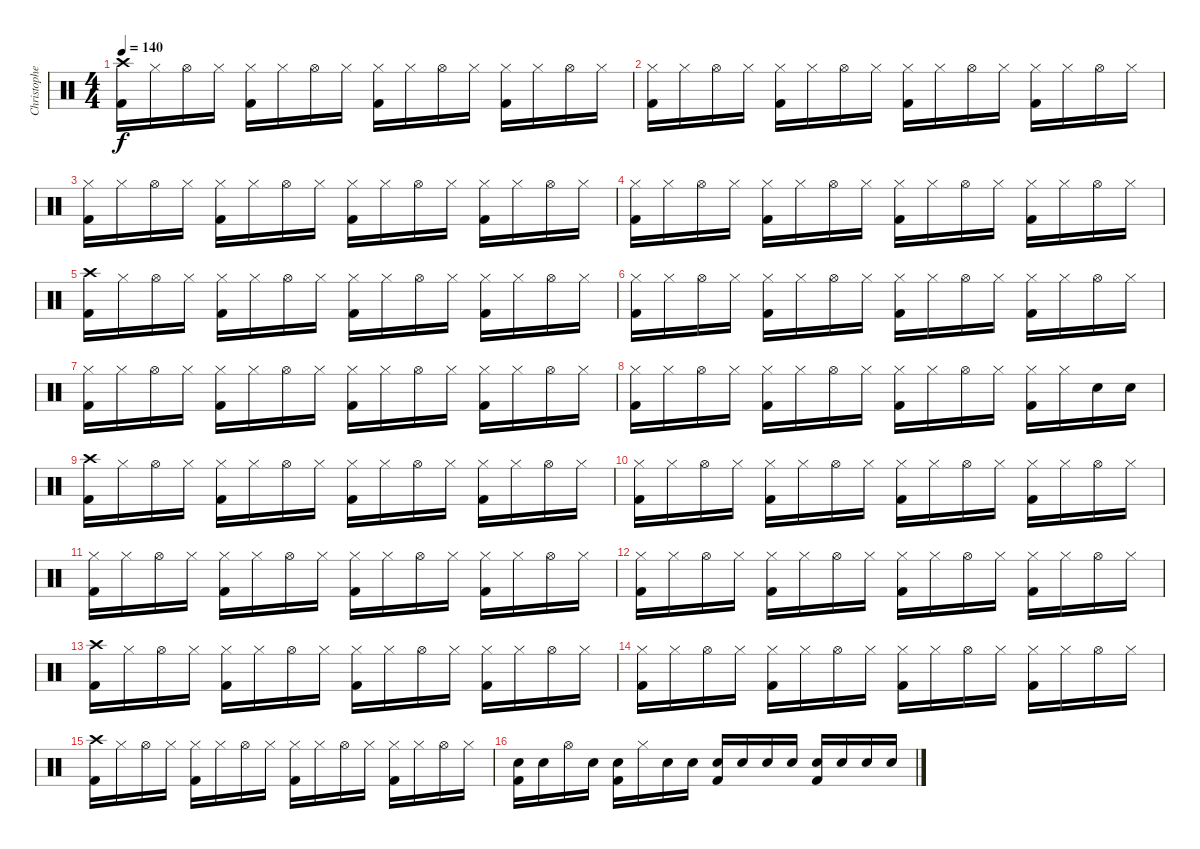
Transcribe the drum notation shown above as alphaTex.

\track ("Christopher Lawrence " "Christophe") {instrument percussion}
\staff {score}
\articulation defaults
\ts (4 4)
\tempo 140
\clef neutral
\ks c
("Crash high (hit)" "Kick (hit) 2").16{dy f} "Hi-Hat (closed)".16 "Hi-Hat (open)".16 "Hi-Hat (closed)".16 ("Hi-Hat (closed)" "Kick (hit) 2").16 "Hi-Hat (closed)".16 "Hi-Hat (open)".16 "Hi-Hat (closed)".16 ("Hi-Hat (closed)" "Kick (hit) 2").16 "Hi-Hat (closed)".16 "Hi-Hat (open)".16 "Hi-Hat (closed)".16 ("Hi-Hat (closed)" "Kick (hit) 2").16 "Hi-Hat (closed)".16 "Hi-Hat (open)".16 "Hi-Hat (closed)".16 |
("Hi-Hat (closed)" "Kick (hit) 2").16 "Hi-Hat (closed)".16 "Hi-Hat (open)".16 "Hi-Hat (closed)".16 ("Hi-Hat (closed)" "Kick (hit) 2").16 "Hi-Hat (closed)".16 "Hi-Hat (open)".16 "Hi-Hat (closed)".16 ("Hi-Hat (closed)" "Kick (hit) 2").16 "Hi-Hat (closed)".16 "Hi-Hat (open)".16 "Hi-Hat (closed)".16 ("Hi-Hat (closed)" "Kick (hit) 2").16 "Hi-Hat (closed)".16 "Hi-Hat (open)".16 "Hi-Hat (closed)".16 |
("Hi-Hat (closed)" "Kick (hit) 2").16 "Hi-Hat (closed)".16 "Hi-Hat (open)".16 "Hi-Hat (closed)".16 ("Hi-Hat (closed)" "Kick (hit) 2").16 "Hi-Hat (closed)".16 "Hi-Hat (open)".16 "Hi-Hat (closed)".16 ("Hi-Hat (closed)" "Kick (hit) 2").16 "Hi-Hat (closed)".16 "Hi-Hat (open)".16 "Hi-Hat (closed)".16 ("Hi-Hat (closed)" "Kick (hit) 2").16 "Hi-Hat (closed)".16 "Hi-Hat (open)".16 "Hi-Hat (closed)".16 |
("Hi-Hat (closed)" "Kick (hit) 2").16 "Hi-Hat (closed)".16 "Hi-Hat (open)".16 "Hi-Hat (closed)".16 ("Hi-Hat (closed)" "Kick (hit) 2").16 "Hi-Hat (closed)".16 "Hi-Hat (open)".16 "Hi-Hat (closed)".16 ("Hi-Hat (closed)" "Kick (hit) 2").16 "Hi-Hat (closed)".16 "Hi-Hat (open)".16 "Hi-Hat (closed)".16 ("Hi-Hat (closed)" "Kick (hit) 2").16 "Hi-Hat (closed)".16 "Hi-Hat (open)".16 "Hi-Hat (closed)".16 |
("Crash high (hit)" "Kick (hit) 2").16 "Hi-Hat (closed)".16 "Hi-Hat (open)".16 "Hi-Hat (closed)".16 ("Hi-Hat (closed)" "Kick (hit) 2").16 "Hi-Hat (closed)".16 "Hi-Hat (open)".16 "Hi-Hat (closed)".16 ("Hi-Hat (closed)" "Kick (hit) 2").16 "Hi-Hat (closed)".16 "Hi-Hat (open)".16 "Hi-Hat (closed)".16 ("Hi-Hat (closed)" "Kick (hit) 2").16 "Hi-Hat (closed)".16 "Hi-Hat (open)".16 "Hi-Hat (closed)".16 |
("Hi-Hat (closed)" "Kick (hit) 2").16 "Hi-Hat (closed)".16 "Hi-Hat (open)".16 "Hi-Hat (closed)".16 ("Hi-Hat (closed)" "Kick (hit) 2").16 "Hi-Hat (closed)".16 "Hi-Hat (open)".16 "Hi-Hat (closed)".16 ("Hi-Hat (closed)" "Kick (hit) 2").16 "Hi-Hat (closed)".16 "Hi-Hat (open)".16 "Hi-Hat (closed)".16 ("Hi-Hat (closed)" "Kick (hit) 2").16 "Hi-Hat (closed)".16 "Hi-Hat (open)".16 "Hi-Hat (closed)".16 |
("Hi-Hat (closed)" "Kick (hit) 2").16 "Hi-Hat (closed)".16 "Hi-Hat (open)".16 "Hi-Hat (closed)".16 ("Hi-Hat (closed)" "Kick (hit) 2").16 "Hi-Hat (closed)".16 "Hi-Hat (open)".16 "Hi-Hat (closed)".16 ("Hi-Hat (closed)" "Kick (hit) 2").16 "Hi-Hat (closed)".16 "Hi-Hat (open)".16 "Hi-Hat (closed)".16 ("Hi-Hat (closed)" "Kick (hit) 2").16 "Hi-Hat (closed)".16 "Hi-Hat (open)".16 "Hi-Hat (closed)".16 |
("Hi-Hat (closed)" "Kick (hit) 2").16 "Hi-Hat (closed)".16 "Hi-Hat (open)".16 "Hi-Hat (closed)".16 ("Hi-Hat (closed)" "Kick (hit) 2").16 "Hi-Hat (closed)".16 "Hi-Hat (open)".16 "Hi-Hat (closed)".16 ("Hi-Hat (closed)" "Kick (hit) 2").16 "Hi-Hat (closed)".16 "Hi-Hat (open)".16 "Hi-Hat (closed)".16 ("Hi-Hat (closed)" "Kick (hit) 2").16 "Hi-Hat (closed)".16 "Snare (hit) 2".16 "Snare (hit) 2".16 |
("Crash high (hit)" "Kick (hit) 2").16 "Hi-Hat (closed)".16 "Hi-Hat (open)".16 "Hi-Hat (closed)".16 ("Hi-Hat (closed)" "Kick (hit) 2").16 "Hi-Hat (closed)".16 "Hi-Hat (open)".16 "Hi-Hat (closed)".16 ("Hi-Hat (closed)" "Kick (hit) 2").16 "Hi-Hat (closed)".16 "Hi-Hat (open)".16 "Hi-Hat (closed)".16 ("Hi-Hat (closed)" "Kick (hit) 2").16 "Hi-Hat (closed)".16 "Hi-Hat (open)".16 "Hi-Hat (closed)".16 |
("Hi-Hat (closed)" "Kick (hit) 2").16 "Hi-Hat (closed)".16 "Hi-Hat (open)".16 "Hi-Hat (closed)".16 ("Hi-Hat (closed)" "Kick (hit) 2").16 "Hi-Hat (closed)".16 "Hi-Hat (open)".16 "Hi-Hat (closed)".16 ("Hi-Hat (closed)" "Kick (hit) 2").16 "Hi-Hat (closed)".16 "Hi-Hat (open)".16 "Hi-Hat (closed)".16 ("Hi-Hat (closed)" "Kick (hit) 2").16 "Hi-Hat (closed)".16 "Hi-Hat (open)".16 "Hi-Hat (closed)".16 |
("Hi-Hat (closed)" "Kick (hit) 2").16 "Hi-Hat (closed)".16 "Hi-Hat (open)".16 "Hi-Hat (closed)".16 ("Hi-Hat (closed)" "Kick (hit) 2").16 "Hi-Hat (closed)".16 "Hi-Hat (open)".16 "Hi-Hat (closed)".16 ("Hi-Hat (closed)" "Kick (hit) 2").16 "Hi-Hat (closed)".16 "Hi-Hat (open)".16 "Hi-Hat (closed)".16 ("Hi-Hat (closed)" "Kick (hit) 2").16 "Hi-Hat (closed)".16 "Hi-Hat (open)".16 "Hi-Hat (closed)".16 |
("Hi-Hat (closed)" "Kick (hit) 2").16 "Hi-Hat (closed)".16 "Hi-Hat (open)".16 "Hi-Hat (closed)".16 ("Hi-Hat (closed)" "Kick (hit) 2").16 "Hi-Hat (closed)".16 "Hi-Hat (open)".16 "Hi-Hat (closed)".16 ("Hi-Hat (closed)" "Kick (hit) 2").16 "Hi-Hat (closed)".16 "Hi-Hat (open)".16 "Hi-Hat (closed)".16 ("Hi-Hat (closed)" "Kick (hit) 2").16 "Hi-Hat (closed)".16 "Hi-Hat (open)".16 "Hi-Hat (closed)".16 |
("Crash high (hit)" "Kick (hit) 2").16 "Hi-Hat (closed)".16 "Hi-Hat (open)".16 "Hi-Hat (closed)".16 ("Hi-Hat (closed)" "Kick (hit) 2").16 "Hi-Hat (closed)".16 "Hi-Hat (open)".16 "Hi-Hat (closed)".16 ("Hi-Hat (closed)" "Kick (hit) 2").16 "Hi-Hat (closed)".16 "Hi-Hat (open)".16 "Hi-Hat (closed)".16 ("Hi-Hat (closed)" "Kick (hit) 2").16 "Hi-Hat (closed)".16 "Hi-Hat (open)".16 "Hi-Hat (closed)".16 |
("Hi-Hat (closed)" "Kick (hit) 2").16 "Hi-Hat (closed)".16 "Hi-Hat (open)".16 "Hi-Hat (closed)".16 ("Hi-Hat (closed)" "Kick (hit) 2").16 "Hi-Hat (closed)".16 "Hi-Hat (open)".16 "Hi-Hat (closed)".16 ("Hi-Hat (closed)" "Kick (hit) 2").16 "Hi-Hat (closed)".16 "Hi-Hat (open)".16 "Hi-Hat (closed)".16 ("Hi-Hat (closed)" "Kick (hit) 2").16 "Hi-Hat (closed)".16 "Hi-Hat (open)".16 "Hi-Hat (closed)".16 |
("Crash high (hit)" "Kick (hit) 2").16 "Hi-Hat (closed)".16 "Hi-Hat (open)".16 "Hi-Hat (closed)".16 ("Hi-Hat (closed)" "Kick (hit) 2").16 "Hi-Hat (closed)".16 "Hi-Hat (open)".16 "Hi-Hat (closed)".16 ("Hi-Hat (closed)" "Kick (hit) 2").16 "Hi-Hat (closed)".16 "Hi-Hat (open)".16 "Hi-Hat (closed)".16 ("Hi-Hat (closed)" "Kick (hit) 2").16 "Hi-Hat (closed)".16 "Hi-Hat (open)".16 "Hi-Hat (closed)".16 |
("Snare (hit) 2" "Kick (hit) 2").16 "Snare (hit) 2".16 "Hi-Hat (open)".16 "Snare (hit) 2".16 ("Snare (hit) 2" "Kick (hit) 2").16 "Hi-Hat (closed)".16 "Snare (hit) 2".16 "Snare (hit) 2".16 ("Snare (hit) 2" "Kick (hit) 2").16 "Snare (hit) 2".16 "Snare (hit) 2".16 "Snare (hit) 2".16 ("Snare (hit) 2" "Kick (hit) 2").16 "Snare (hit) 2".16 "Snare (hit) 2".16 "Snare (hit) 2".16
